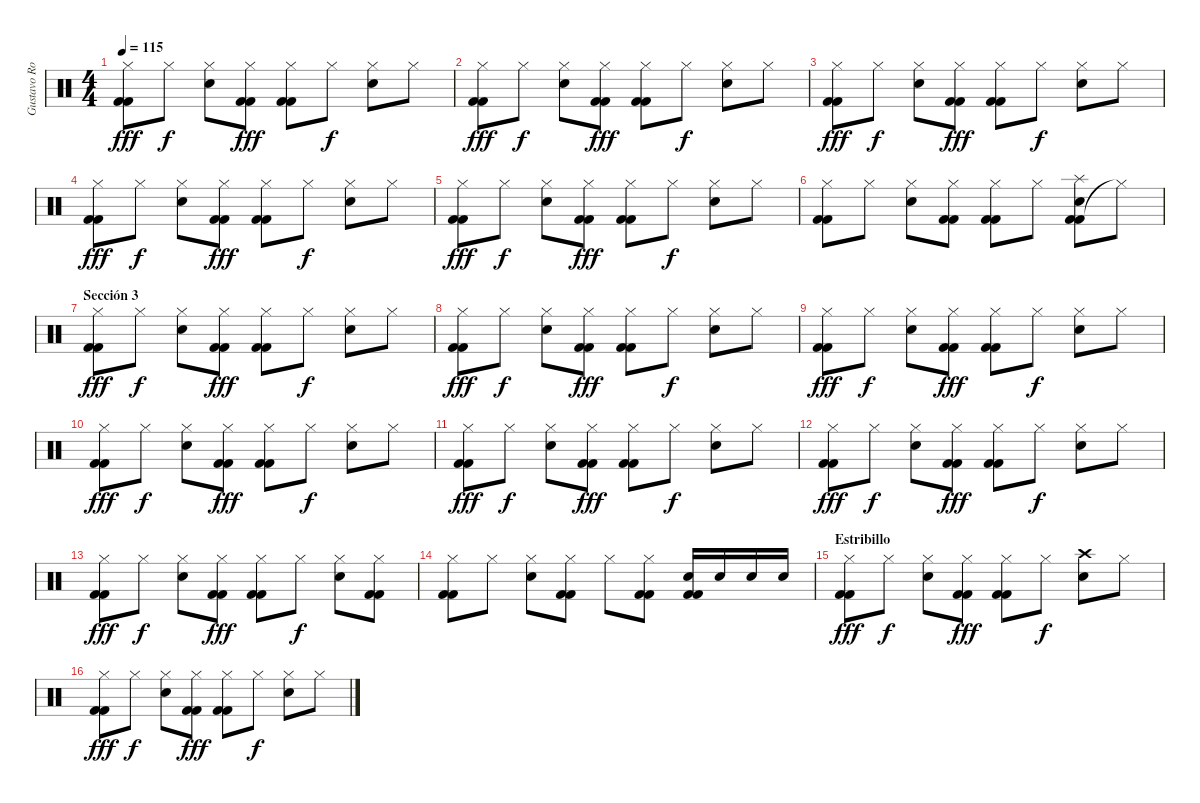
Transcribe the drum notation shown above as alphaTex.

\track ("Gustavo Rowek" "Gustavo Ro") {instrument percussion}
\staff {score}
\articulation defaults
\ts (4 4)
\tempo 115
\clef neutral
\ks c
("Kick (hit) 2" "Kick (hit) 2" "Hi-Hat (closed)").8{dy fff} "Hi-Hat (closed)".8{dy f} ("Snare (hit) 2" "Hi-Hat (closed)").8 ("Kick (hit) 2" "Kick (hit) 2" "Hi-Hat (closed)").8{dy fff} ("Kick (hit) 2" "Kick (hit) 2" "Hi-Hat (closed)").8 "Hi-Hat (closed)".8{dy f} ("Snare (hit) 2" "Hi-Hat (closed)").8 "Hi-Hat (closed)".8 |
("Kick (hit) 2" "Kick (hit) 2" "Hi-Hat (closed)").8{dy fff} "Hi-Hat (closed)".8{dy f} ("Snare (hit) 2" "Hi-Hat (closed)").8 ("Kick (hit) 2" "Kick (hit) 2" "Hi-Hat (closed)").8{dy fff} ("Kick (hit) 2" "Kick (hit) 2" "Hi-Hat (closed)").8 "Hi-Hat (closed)".8{dy f} ("Snare (hit) 2" "Hi-Hat (closed)").8 "Hi-Hat (closed)".8 |
("Kick (hit) 2" "Kick (hit) 2" "Hi-Hat (closed)").8{dy fff} "Hi-Hat (closed)".8{dy f} ("Snare (hit) 2" "Hi-Hat (closed)").8 ("Kick (hit) 2" "Kick (hit) 2" "Hi-Hat (closed)").8{dy fff} ("Kick (hit) 2" "Kick (hit) 2" "Hi-Hat (closed)").8 "Hi-Hat (closed)".8{dy f} ("Snare (hit) 2" "Hi-Hat (closed)").8 "Hi-Hat (closed)".8 |
("Kick (hit) 2" "Kick (hit) 2" "Hi-Hat (closed)").8{dy fff} "Hi-Hat (closed)".8{dy f} ("Snare (hit) 2" "Hi-Hat (closed)").8 ("Kick (hit) 2" "Kick (hit) 2" "Hi-Hat (closed)").8{dy fff} ("Kick (hit) 2" "Kick (hit) 2" "Hi-Hat (closed)").8 "Hi-Hat (closed)".8{dy f} ("Snare (hit) 2" "Hi-Hat (closed)").8 "Hi-Hat (closed)".8 |
("Kick (hit) 2" "Kick (hit) 2" "Hi-Hat (closed)").8{dy fff} "Hi-Hat (closed)".8{dy f} ("Snare (hit) 2" "Hi-Hat (closed)").8 ("Kick (hit) 2" "Kick (hit) 2" "Hi-Hat (closed)").8{dy fff} ("Kick (hit) 2" "Kick (hit) 2" "Hi-Hat (closed)").8 "Hi-Hat (closed)".8{dy f} ("Snare (hit) 2" "Hi-Hat (closed)").8 "Hi-Hat (closed)".8 |
("Kick (hit) 2" "Kick (hit) 2" "Hi-Hat (closed)").8 "Hi-Hat (closed)".8 ("Snare (hit) 2" "Hi-Hat (closed)").8 ("Kick (hit) 2" "Kick (hit) 2" "Hi-Hat (closed)").8 ("Kick (hit) 2" "Kick (hit) 2" "Hi-Hat (closed)").8 "Hi-Hat (closed)".8 ("Kick (hit) 2" "Kick (hit) 2" "Snare (hit) 2" "Splash (hit)").8 "Hi-Hat (closed)"{t}.8 |
\section ("" "Sección 3")
("Kick (hit) 2" "Kick (hit) 2" "Hi-Hat (closed)").8{dy fff} "Hi-Hat (closed)".8{dy f} ("Snare (hit) 2" "Hi-Hat (closed)").8 ("Kick (hit) 2" "Kick (hit) 2" "Hi-Hat (closed)").8{dy fff} ("Kick (hit) 2" "Kick (hit) 2" "Hi-Hat (closed)").8 "Hi-Hat (closed)".8{dy f} ("Snare (hit) 2" "Hi-Hat (closed)").8 "Hi-Hat (closed)".8 |
("Kick (hit) 2" "Kick (hit) 2" "Hi-Hat (closed)").8{dy fff} "Hi-Hat (closed)".8{dy f} ("Snare (hit) 2" "Hi-Hat (closed)").8 ("Kick (hit) 2" "Kick (hit) 2" "Hi-Hat (closed)").8{dy fff} ("Kick (hit) 2" "Kick (hit) 2" "Hi-Hat (closed)").8 "Hi-Hat (closed)".8{dy f} ("Snare (hit) 2" "Hi-Hat (closed)").8 "Hi-Hat (closed)".8 |
("Kick (hit) 2" "Kick (hit) 2" "Hi-Hat (closed)").8{dy fff} "Hi-Hat (closed)".8{dy f} ("Snare (hit) 2" "Hi-Hat (closed)").8 ("Kick (hit) 2" "Kick (hit) 2" "Hi-Hat (closed)").8{dy fff} ("Kick (hit) 2" "Kick (hit) 2" "Hi-Hat (closed)").8 "Hi-Hat (closed)".8{dy f} ("Snare (hit) 2" "Hi-Hat (closed)").8 "Hi-Hat (closed)".8 |
("Kick (hit) 2" "Kick (hit) 2" "Hi-Hat (closed)").8{dy fff} "Hi-Hat (closed)".8{dy f} ("Snare (hit) 2" "Hi-Hat (closed)").8 ("Kick (hit) 2" "Kick (hit) 2" "Hi-Hat (closed)").8{dy fff} ("Kick (hit) 2" "Kick (hit) 2" "Hi-Hat (closed)").8 "Hi-Hat (closed)".8{dy f} ("Snare (hit) 2" "Hi-Hat (closed)").8 "Hi-Hat (closed)".8 |
("Kick (hit) 2" "Kick (hit) 2" "Hi-Hat (closed)").8{dy fff} "Hi-Hat (closed)".8{dy f} ("Snare (hit) 2" "Hi-Hat (closed)").8 ("Kick (hit) 2" "Kick (hit) 2" "Hi-Hat (closed)").8{dy fff} ("Kick (hit) 2" "Kick (hit) 2" "Hi-Hat (closed)").8 "Hi-Hat (closed)".8{dy f} ("Snare (hit) 2" "Hi-Hat (closed)").8 "Hi-Hat (closed)".8 |
("Kick (hit) 2" "Kick (hit) 2" "Hi-Hat (closed)").8{dy fff} "Hi-Hat (closed)".8{dy f} ("Snare (hit) 2" "Hi-Hat (closed)").8 ("Kick (hit) 2" "Kick (hit) 2" "Hi-Hat (closed)").8{dy fff} ("Kick (hit) 2" "Kick (hit) 2" "Hi-Hat (closed)").8 "Hi-Hat (closed)".8{dy f} ("Snare (hit) 2" "Hi-Hat (closed)").8 "Hi-Hat (closed)".8 |
("Kick (hit) 2" "Kick (hit) 2" "Hi-Hat (closed)").8{dy fff} "Hi-Hat (closed)".8{dy f} ("Snare (hit) 2" "Hi-Hat (closed)").8 ("Kick (hit) 2" "Kick (hit) 2" "Hi-Hat (closed)").8{dy fff} ("Kick (hit) 2" "Kick (hit) 2" "Hi-Hat (closed)").8 "Hi-Hat (closed)".8{dy f} ("Snare (hit) 2" "Hi-Hat (closed)").8 ("Kick (hit) 2" "Kick (hit) 2" "Hi-Hat (closed)").8 |
("Kick (hit) 2" "Kick (hit) 2" "Hi-Hat (closed)").8 "Hi-Hat (closed)".8 ("Snare (hit) 2" "Hi-Hat (closed)").8 ("Kick (hit) 2" "Kick (hit) 2" "Hi-Hat (closed)").8 "Hi-Hat (closed)".8 ("Kick (hit) 2" "Kick (hit) 2" "Hi-Hat (closed)").8 ("Kick (hit) 2" "Kick (hit) 2" "Snare (hit) 2").16 "Snare (hit) 2".16 "Snare (hit) 2".16 "Snare (hit) 2".16 |
\section ("" "Estribillo")
("Kick (hit) 2" "Kick (hit) 2" "Hi-Hat (closed)").8{dy fff} "Hi-Hat (closed)".8{dy f} ("Snare (hit) 2" "Hi-Hat (closed)").8 ("Kick (hit) 2" "Kick (hit) 2" "Hi-Hat (closed)").8{dy fff} ("Kick (hit) 2" "Kick (hit) 2" "Hi-Hat (closed)").8 "Hi-Hat (closed)".8{dy f} ("Snare (hit) 2" "Crash high (hit)").8 "Hi-Hat (closed)".8 |
("Kick (hit) 2" "Kick (hit) 2" "Hi-Hat (closed)").8{dy fff} "Hi-Hat (closed)".8{dy f} ("Snare (hit) 2" "Hi-Hat (closed)").8 ("Kick (hit) 2" "Kick (hit) 2" "Hi-Hat (closed)").8{dy fff} ("Kick (hit) 2" "Kick (hit) 2" "Hi-Hat (closed)").8 "Hi-Hat (closed)".8{dy f} ("Snare (hit) 2" "Hi-Hat (closed)").8 "Hi-Hat (closed)".8
